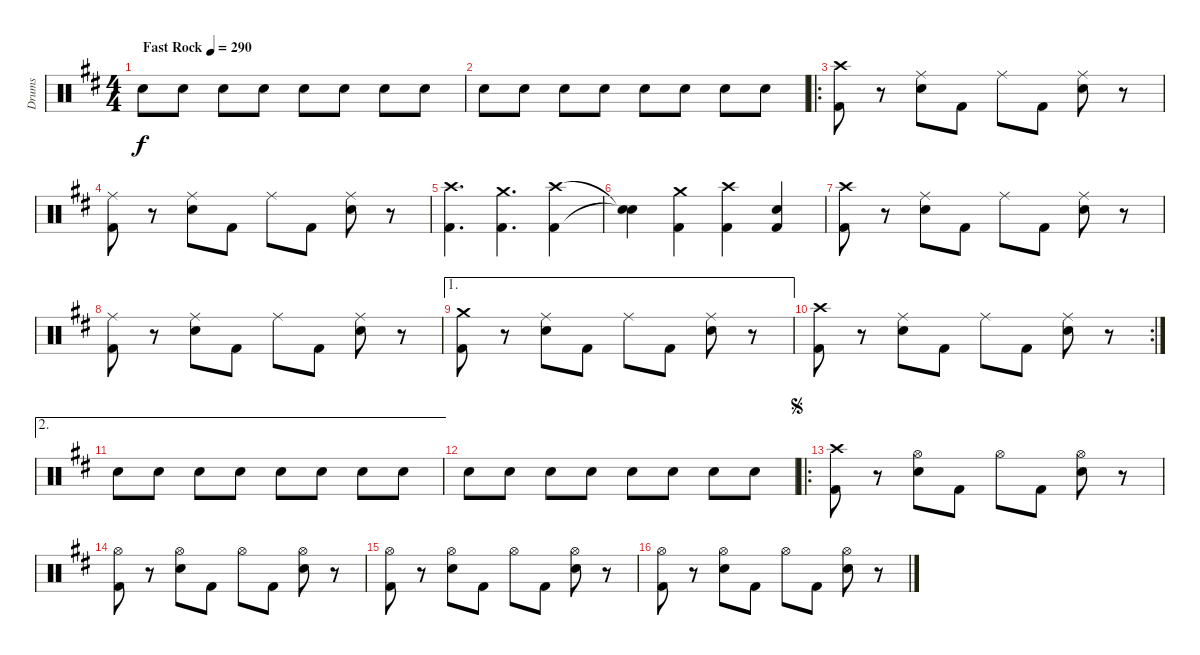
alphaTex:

\track ("Drums" "Drums") {instrument percussion}
\staff {score}
\articulation defaults
\ts (4 4)
\tempo (290 "Fast Rock")
\clef neutral
\ks d "Electric Snare (hit)".8{dy f} "Electric Snare (hit)".8 "Electric Snare (hit)".8 "Electric Snare (hit)".8 "Electric Snare (hit)".8 "Electric Snare (hit)".8 "Electric Snare (hit)".8 "Electric Snare (hit)".8
|
"Electric Snare (hit)".8 "Electric Snare (hit)".8 "Electric Snare (hit)".8 "Electric Snare (hit)".8 "Electric Snare (hit)".8 "Electric Snare (hit)".8 "Electric Snare (hit)".8 "Electric Snare (hit)".8 |
\ro
("Crash high (hit)" "Kick (hit) 2").8 r.8 ("Ride (middle)" "Electric Snare (hit)").8 "Kick (hit) 2".8 "Ride (middle)".8 "Kick (hit) 2".8 ("Ride (middle)" "Electric Snare (hit)").8 r.8 |
("Ride (middle)" "Kick (hit) 2").8 r.8 ("Ride (middle)" "Electric Snare (hit)").8 "Kick (hit) 2".8 "Ride (middle)".8 "Kick (hit) 2".8 ("Ride (middle)" "Electric Snare (hit)").8 r.8 |
("Crash high (hit)" "Kick (hit) 2").4{d} ("Crash medium (hit)" "Kick (hit) 2").4{d} ("Crash high (hit)" "Kick (hit) 2").4 |
("Snare (hit)"{t} "Snare (hit)"{t}).4 ("Crash medium (hit)" "Kick (hit) 2").4 ("Crash high (hit)" "Kick (hit) 2").4 ("Electric Snare (hit)" "Kick (hit) 2").4 |
("Crash high (hit)" "Kick (hit) 2").8 r.8 ("Ride (middle)" "Electric Snare (hit)").8 "Kick (hit) 2".8 "Ride (middle)".8 "Kick (hit) 2".8 ("Ride (middle)" "Electric Snare (hit)").8 r.8 |
("Ride (middle)" "Kick (hit) 2").8 r.8 ("Ride (middle)" "Electric Snare (hit)").8 "Kick (hit) 2".8 "Ride (middle)".8 "Kick (hit) 2".8 ("Ride (middle)" "Electric Snare (hit)").8 r.8 |
\ae 1
("Crash medium (hit)" "Kick (hit) 2").8 r.8 ("Ride (middle)" "Electric Snare (hit)").8 "Kick (hit) 2".8 "Ride (middle)".8 "Kick (hit) 2".8 ("Ride (middle)" "Electric Snare (hit)").8 r.8 |
\rc 2
("Crash high (hit)" "Kick (hit) 2").8 r.8 ("Ride (middle)" "Electric Snare (hit)").8 "Kick (hit) 2".8 "Ride (middle)".8 "Kick (hit) 2".8 ("Ride (middle)" "Electric Snare (hit)").8 r.8 |
\ae 2 "Electric Snare (hit)".8 "Electric Snare (hit)".8 "Electric Snare (hit)".8 "Electric Snare (hit)".8 "Electric Snare (hit)".8 "Electric Snare (hit)".8 "Electric Snare (hit)".8 "Electric Snare (hit)".8
|
"Electric Snare (hit)".8 "Electric Snare (hit)".8 "Electric Snare (hit)".8 "Electric Snare (hit)".8 "Electric Snare (hit)".8 "Electric Snare (hit)".8 "Electric Snare (hit)".8 "Electric Snare (hit)".8 |
\ro
\jump segno
("Crash high (hit)" "Kick (hit) 2").8 r.8 ("Hi-Hat (open)" "Electric Snare (hit)").8 "Kick (hit) 2".8 "Hi-Hat (open)".8 "Kick (hit) 2".8 ("Hi-Hat (open)" "Electric Snare (hit)").8 r.8 |
("Hi-Hat (open)" "Kick (hit) 2").8 r.8 ("Hi-Hat (open)" "Electric Snare (hit)").8 "Kick (hit) 2".8 "Hi-Hat (open)".8 "Kick (hit) 2".8 ("Hi-Hat (open)" "Electric Snare (hit)").8 r.8 |
("Hi-Hat (open)" "Kick (hit) 2").8 r.8 ("Hi-Hat (open)" "Electric Snare (hit)").8 "Kick (hit) 2".8 "Hi-Hat (open)".8 "Kick (hit) 2".8 ("Hi-Hat (open)" "Electric Snare (hit)").8 r.8 |
("Hi-Hat (open)" "Kick (hit) 2").8 r.8 ("Hi-Hat (open)" "Electric Snare (hit)").8 "Kick (hit) 2".8 "Hi-Hat (open)".8 "Kick (hit) 2".8 ("Hi-Hat (open)" "Electric Snare (hit)").8 r.8
